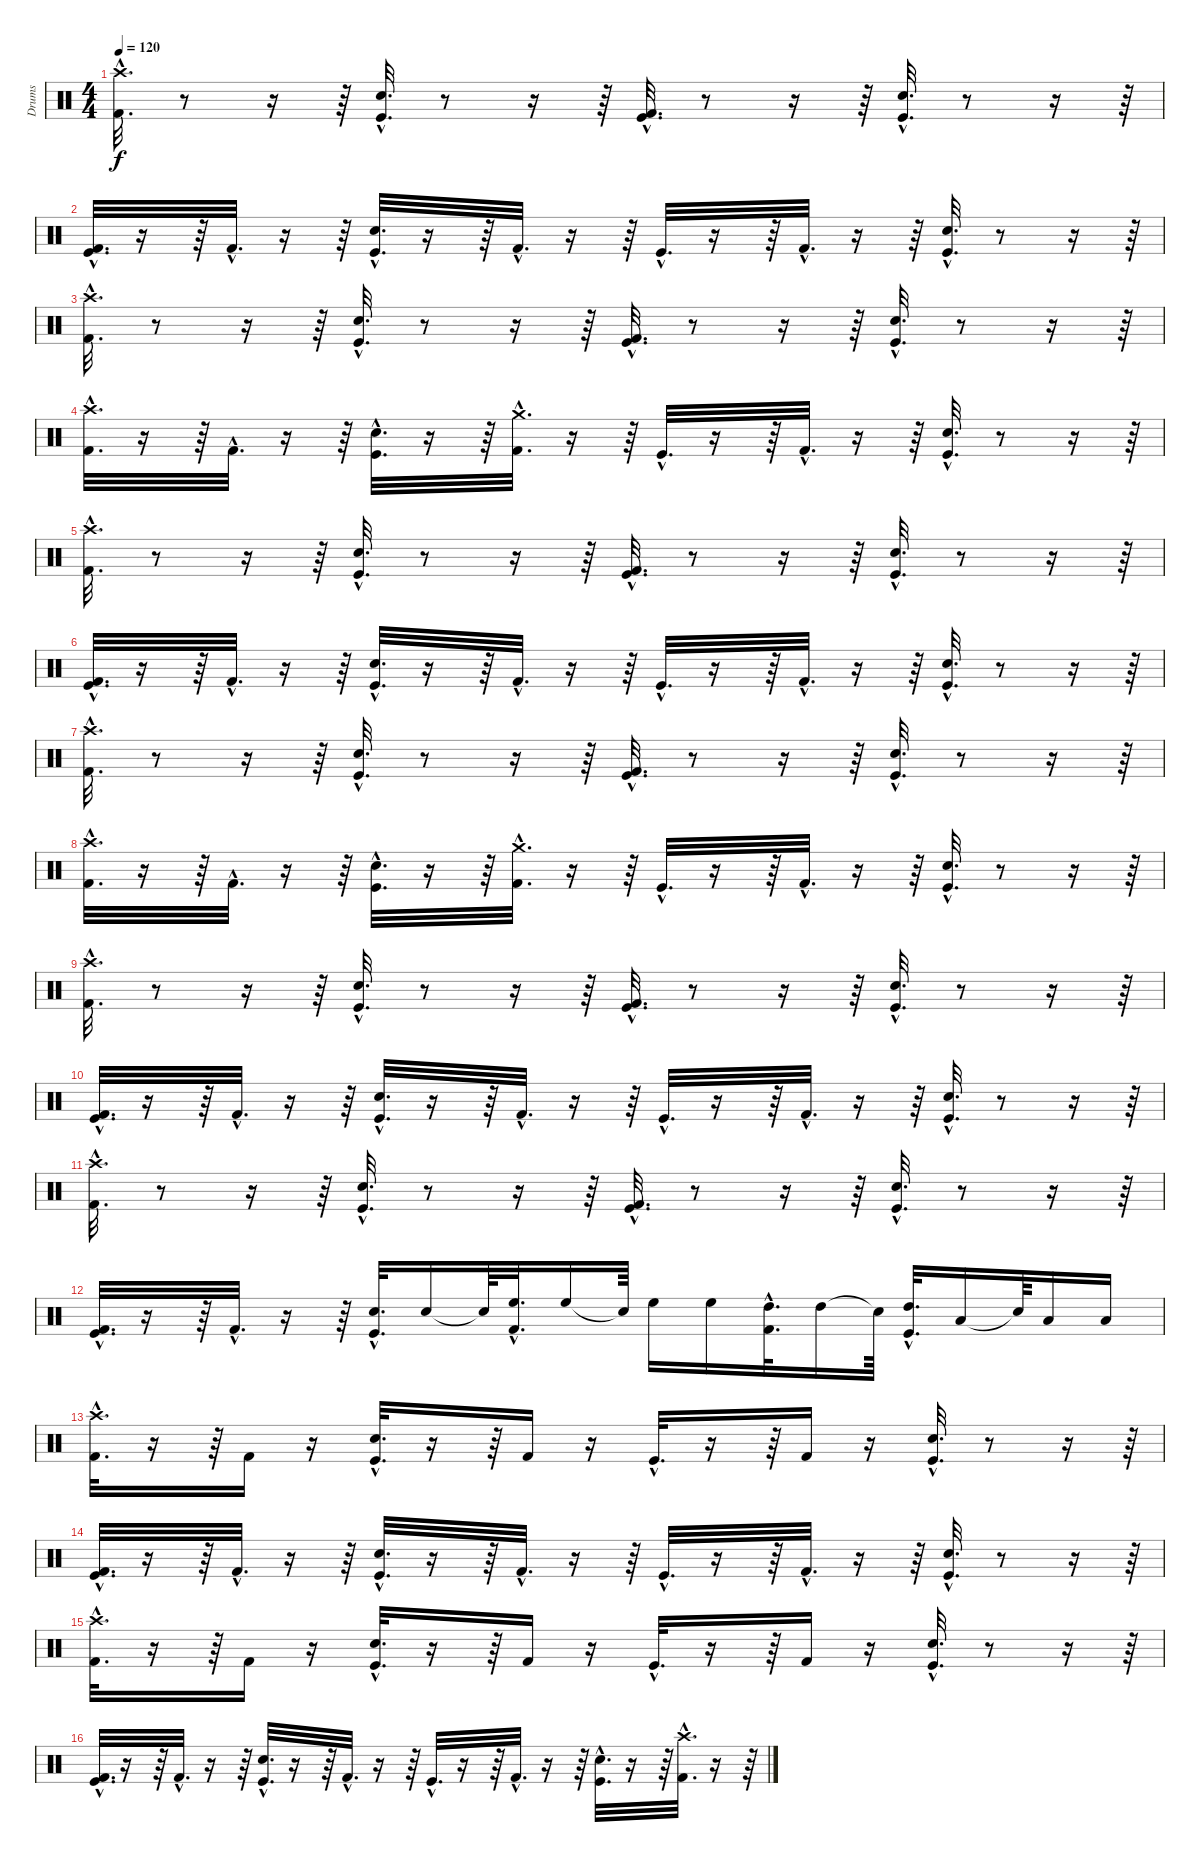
\track ("Drums" "Drums") {instrument percussion}
\staff {score}
\articulation defaults
\ts (4 4)
\tempo 120
\clef neutral
\ks c
("Kick (hit) 2"{hac} "Crash high (hit)"{hac}).32{d dy f} r.8 r.16 r.64 ("Kick (hit)"{hac} "Snare (hit) 2"{hac}).32{d} r.8 r.16 r.64 ("Kick (hit)"{hac} "Kick (hit) 2"{hac}).32{d} r.8 r.16 r.64 ("Kick (hit)"{hac} "Snare (hit) 2"{hac}).32{d} r.8 r.16 r.64 |
("Kick (hit)"{hac} "Kick (hit) 2"{hac}).32{d} r.16 r.64 "Kick (hit) 2"{hac}.32{d} r.16 r.64 ("Snare (hit) 2"{hac} "Kick (hit)"{hac}).32{d} r.16 r.64 "Kick (hit) 2"{hac}.32{d} r.16 r.64 "Kick (hit)"{hac}.32{d} r.16 r.64 "Kick (hit) 2"{hac}.32{d} r.16 r.64 ("Snare (hit) 2"{hac} "Kick (hit)"{hac}).32{d} r.8 r.16 r.64 |
("Kick (hit) 2"{hac} "Crash high (hit)"{hac}).32{d} r.8 r.16 r.64 ("Kick (hit)"{hac} "Snare (hit) 2"{hac}).32{d} r.8 r.16 r.64 ("Kick (hit)"{hac} "Kick (hit) 2"{hac}).32{d} r.8 r.16 r.64 ("Kick (hit)"{hac} "Snare (hit) 2"{hac}).32{d} r.8 r.16 r.64 |
("Crash high (hit)"{hac} "Kick (hit) 2"{hac}).32{d} r.16 r.64 "Kick (hit) 2"{hac}.32{d} r.16 r.64 ("Kick (hit)"{hac} "Snare (hit) 2"{hac}).32{d} r.16 r.64 ("Crash medium (hit)"{hac} "Kick (hit) 2"{hac}).32{d} r.16 r.64 "Kick (hit)"{hac}.32{d} r.16 r.64 "Kick (hit) 2"{hac}.32{d} r.16 r.64 ("Kick (hit)"{hac} "Snare (hit) 2"{hac}).32{d} r.8 r.16 r.64 |
("Kick (hit) 2"{hac} "Crash high (hit)"{hac}).32{d} r.8 r.16 r.64 ("Kick (hit)"{hac} "Snare (hit) 2"{hac}).32{d} r.8 r.16 r.64 ("Kick (hit)"{hac} "Kick (hit) 2"{hac}).32{d} r.8 r.16 r.64 ("Kick (hit)"{hac} "Snare (hit) 2"{hac}).32{d} r.8 r.16 r.64 |
("Kick (hit)"{hac} "Kick (hit) 2"{hac}).32{d} r.16 r.64 "Kick (hit) 2"{hac}.32{d} r.16 r.64 ("Snare (hit) 2"{hac} "Kick (hit)"{hac}).32{d} r.16 r.64 "Kick (hit) 2"{hac}.32{d} r.16 r.64 "Kick (hit)"{hac}.32{d} r.16 r.64 "Kick (hit) 2"{hac}.32{d} r.16 r.64 ("Snare (hit) 2"{hac} "Kick (hit)"{hac}).32{d} r.8 r.16 r.64 |
("Kick (hit) 2"{hac} "Crash high (hit)"{hac}).32{d} r.8 r.16 r.64 ("Kick (hit)"{hac} "Snare (hit) 2"{hac}).32{d} r.8 r.16 r.64 ("Kick (hit)"{hac} "Kick (hit) 2"{hac}).32{d} r.8 r.16 r.64 ("Kick (hit)"{hac} "Snare (hit) 2"{hac}).32{d} r.8 r.16 r.64 |
("Crash high (hit)"{hac} "Kick (hit) 2"{hac}).32{d} r.16 r.64 "Kick (hit) 2"{hac}.32{d} r.16 r.64 ("Kick (hit)"{hac} "Snare (hit) 2"{hac}).32{d} r.16 r.64 ("Crash medium (hit)"{hac} "Kick (hit) 2"{hac}).32{d} r.16 r.64 "Kick (hit)"{hac}.32{d} r.16 r.64 "Kick (hit) 2"{hac}.32{d} r.16 r.64 ("Kick (hit)"{hac} "Snare (hit) 2"{hac}).32{d} r.8 r.16 r.64 |
("Kick (hit) 2"{hac} "Crash high (hit)"{hac}).32{d} r.8 r.16 r.64 ("Kick (hit)"{hac} "Snare (hit) 2"{hac}).32{d} r.8 r.16 r.64 ("Kick (hit)"{hac} "Kick (hit) 2"{hac}).32{d} r.8 r.16 r.64 ("Kick (hit)"{hac} "Snare (hit) 2"{hac}).32{d} r.8 r.16 r.64 |
("Kick (hit)"{hac} "Kick (hit) 2"{hac}).32{d} r.16 r.64 "Kick (hit) 2"{hac}.32{d} r.16 r.64 ("Snare (hit) 2"{hac} "Kick (hit)"{hac}).32{d} r.16 r.64 "Kick (hit) 2"{hac}.32{d} r.16 r.64 "Kick (hit)"{hac}.32{d} r.16 r.64 "Kick (hit) 2"{hac}.32{d} r.16 r.64 ("Snare (hit) 2"{hac} "Kick (hit)"{hac}).32{d} r.8 r.16 r.64 |
("Kick (hit) 2"{hac} "Crash high (hit)"{hac}).32{d} r.8 r.16 r.64 ("Kick (hit)"{hac} "Snare (hit) 2"{hac}).32{d} r.8 r.16 r.64 ("Kick (hit)"{hac} "Kick (hit) 2"{hac}).32{d} r.8 r.16 r.64 ("Kick (hit)"{hac} "Snare (hit) 2"{hac}).32{d} r.8 r.16 r.64 |
("Kick (hit)"{hac} "Kick (hit) 2"{hac}).32{d} r.16 r.64 "Kick (hit) 2"{hac}.32{d} r.16 r.64 ("Snare (hit) 2"{hac} "Kick (hit)"{hac}).32{d} "Snare (hit) 2".16 "Snare (hit)"{t}.64 ("High Floor Tom (hit)"{hac} "Kick (hit) 2"{hac}).32{d} "High Floor Tom (hit)".16 "Snare (hit)"{t}.64 "High Floor Tom (hit)".16 "High Floor Tom (hit)".16 ("High Tom (hit)"{hac} "Kick (hit) 2"{hac}).32{d} "High Tom (hit)".16 "Snare (hit)"{t}.64 ("Kick (hit)"{hac} "High Tom (hit)"{hac}).32{d} "Low Tom (hit)".16 "Snare (hit)"{t}.64 "Low Tom (hit)".16 "Low Floor Tom (hit)".16 |
("Kick (hit) 2"{hac} "Crash high (hit)"{hac}).32{d} r.16 r.64 "Kick (hit) 2".16 r.16 ("Kick (hit)"{hac} "Snare (hit) 2"{hac}).32{d} r.16 r.64 "Kick (hit) 2".16 r.16 "Kick (hit)"{hac}.32{d} r.16 r.64 "Kick (hit) 2".16 r.16 ("Kick (hit)"{hac} "Snare (hit) 2"{hac}).32{d} r.8 r.16 r.64 |
("Kick (hit)"{hac} "Kick (hit) 2"{hac}).32{d} r.16 r.64 "Kick (hit) 2"{hac}.32{d} r.16 r.64 ("Snare (hit) 2"{hac} "Kick (hit)"{hac}).32{d} r.16 r.64 "Kick (hit) 2"{hac}.32{d} r.16 r.64 "Kick (hit)"{hac}.32{d} r.16 r.64 "Kick (hit) 2"{hac}.32{d} r.16 r.64 ("Snare (hit) 2"{hac} "Kick (hit)"{hac}).32{d} r.8 r.16 r.64 |
("Kick (hit) 2"{hac} "Crash high (hit)"{hac}).32{d} r.16 r.64 "Kick (hit) 2".16 r.16 ("Kick (hit)"{hac} "Snare (hit) 2"{hac}).32{d} r.16 r.64 "Kick (hit) 2".16 r.16 "Kick (hit)"{hac}.32{d} r.16 r.64 "Kick (hit) 2".16 r.16 ("Kick (hit)"{hac} "Snare (hit) 2"{hac}).32{d} r.8 r.16 r.64 |
("Kick (hit)"{hac} "Kick (hit) 2"{hac}).32{d} r.16 r.64 "Kick (hit) 2"{hac}.32{d} r.16 r.64 ("Snare (hit) 2"{hac} "Kick (hit)"{hac}).32{d} r.16 r.64 "Kick (hit) 2"{hac}.32{d} r.16 r.64 "Kick (hit)"{hac}.32{d} r.16 r.64 "Kick (hit) 2"{hac}.32{d} r.16 r.64 ("Snare (hit) 2"{hac} "Kick (hit)"{hac}).32{d} r.16 r.64 ("Kick (hit) 2"{hac} "Crash high (hit)"{hac}).32{d} r.16 r.64
